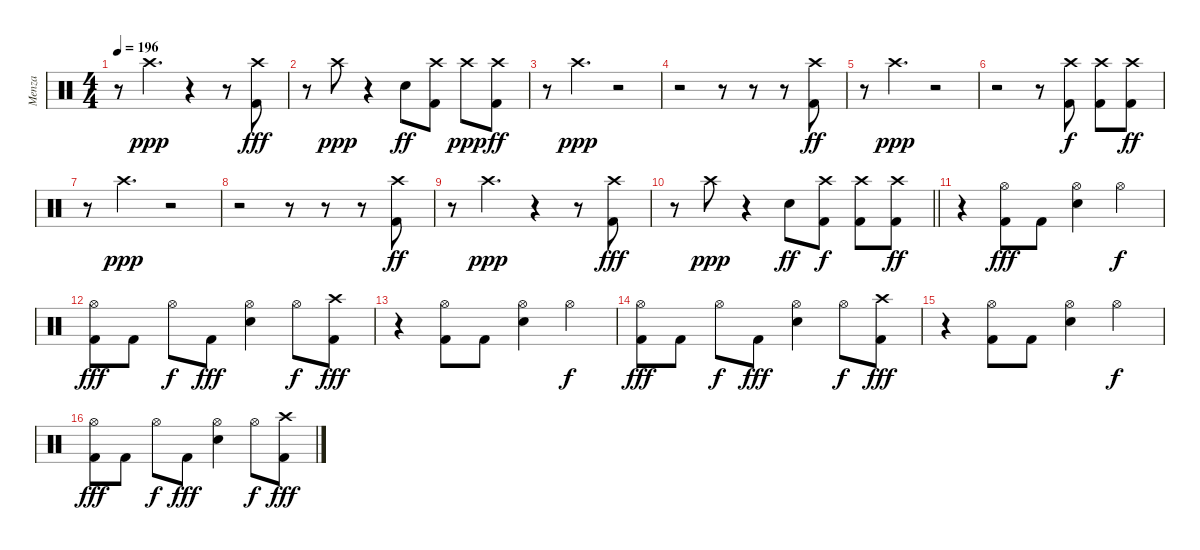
\track ("Menza" "Menza") {instrument percussion}
\staff {score}
\articulation defaults
\ts (4 4)
\tempo 196
\clef neutral
\ks c
r.8{dy ff} "Crash high (hit)".4{d dy ppp} r.4 r.8 ("Crash high (hit)" "Kick (hit) 2").8{dy fff} |
r.8 "Crash high (hit)".8{dy ppp} r.4 "Snare (hit) 2".8{dy ff} ("Crash high (hit)" "Kick (hit) 2").8 "Crash high (hit)".8{dy ppp} ("Crash high (hit)" "Kick (hit) 2").8{dy ff} |
r.8 "Crash high (hit)".4{d dy ppp} r.2 |
r.2 r.8 r.8 r.8 ("Crash high (hit)" "Kick (hit) 2").8{dy ff} |
r.8 "Crash high (hit)".4{d dy ppp} r.2 |
r.2 r.8 ("Crash high (hit)" "Kick (hit) 2").8{dy f} ("Crash high (hit)" "Kick (hit) 2").8 ("Crash high (hit)" "Kick (hit) 2").8{dy ff} |
r.8 "Crash high (hit)".4{d dy ppp} r.2 |
r.2 r.8 r.8 r.8 ("Crash high (hit)" "Kick (hit) 2").8{dy ff} |
r.8 "Crash high (hit)".4{d dy ppp} r.4 r.8 ("Crash high (hit)" "Kick (hit) 2").8{dy fff} |
\barLineRight lightlight
r.8 "Crash high (hit)".8{dy ppp} r.4 "Snare (hit) 2".8{dy ff} ("Crash high (hit)" "Kick (hit) 2").8{dy f} ("Crash high (hit)" "Kick (hit) 2").8 ("Crash high (hit)" "Kick (hit) 2").8{dy ff} |
r.4 ("Hi-Hat (open)" "Kick (hit) 2").8{dy fff} "Kick (hit) 2".8 ("Hi-Hat (open)" "Snare (hit) 2").4 "Hi-Hat (open)".4{dy f} |
("Hi-Hat (open)" "Kick (hit) 2").8{dy fff} "Kick (hit) 2".8 "Hi-Hat (open)".8{dy f} "Kick (hit) 2".8{dy fff} ("Hi-Hat (open)" "Snare (hit) 2").4 "Hi-Hat (open)".8{dy f} ("Crash high (hit)" "Kick (hit) 2").8{dy fff} |
r.4 ("Hi-Hat (open)" "Kick (hit) 2").8 "Kick (hit) 2".8 ("Hi-Hat (open)" "Snare (hit) 2").4 "Hi-Hat (open)".4{dy f} |
("Hi-Hat (open)" "Kick (hit) 2").8{dy fff} "Kick (hit) 2".8 "Hi-Hat (open)".8{dy f} "Kick (hit) 2".8{dy fff} ("Hi-Hat (open)" "Snare (hit) 2").4 "Hi-Hat (open)".8{dy f} ("Crash high (hit)" "Kick (hit) 2").8{dy fff} |
r.4 ("Hi-Hat (open)" "Kick (hit) 2").8 "Kick (hit) 2".8 ("Hi-Hat (open)" "Snare (hit) 2").4 "Hi-Hat (open)".4{dy f} |
("Hi-Hat (open)" "Kick (hit) 2").8{dy fff} "Kick (hit) 2".8 "Hi-Hat (open)".8{dy f} "Kick (hit) 2".8{dy fff} ("Hi-Hat (open)" "Snare (hit) 2").4 "Hi-Hat (open)".8{dy f} ("Crash high (hit)" "Kick (hit) 2").8{dy fff}
